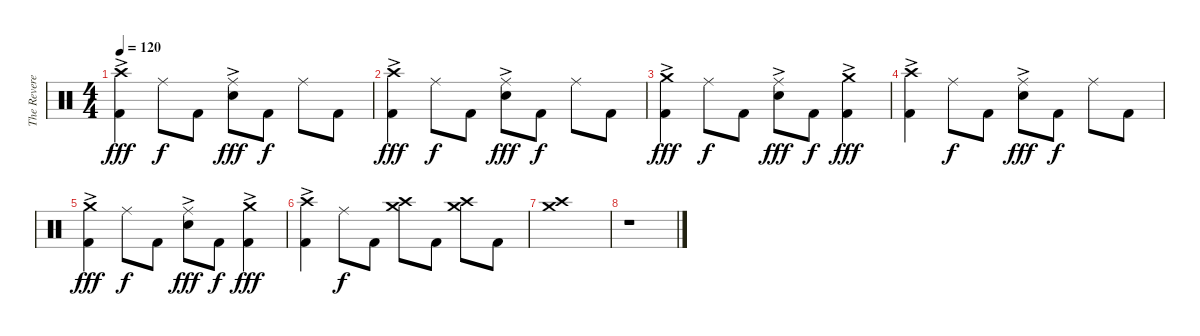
\track ("The Reverend" "The Revere") {instrument percussion}
\staff {score}
\articulation defaults
\ts (4 4)
\tempo 120
\clef neutral
\ks c
("Crash high (hit)"{ac} "Kick (hit) 2").4{dy fff} "Ride (middle)".8{dy f} "Kick (hit) 2".8 ("Ride (middle)" "Electric Snare (hit)"{ac}).8{dy fff} "Kick (hit) 2".8{dy f} "Ride (middle)".8 "Kick (hit) 2".8 |
("Crash high (hit)"{ac} "Kick (hit) 2").4{dy fff} "Ride (middle)".8{dy f} "Kick (hit) 2".8 ("Ride (middle)" "Electric Snare (hit)"{ac}).8{dy fff} "Kick (hit) 2".8{dy f} "Ride (middle)".8 "Kick (hit) 2".8 |
("Crash medium (hit)"{ac} "Kick (hit) 2").4{dy fff} "Ride (middle)".8{dy f} "Kick (hit) 2".8 ("Ride (middle)" "Electric Snare (hit)"{ac}).8{dy fff} "Kick (hit) 2".8{dy f} ("Crash medium (hit)"{ac} "Kick (hit) 2").4{dy fff} |
("Crash high (hit)"{ac} "Kick (hit) 2").4 "Ride (middle)".8{dy f} "Kick (hit) 2".8 ("Ride (middle)" "Electric Snare (hit)"{ac}).8{dy fff} "Kick (hit) 2".8{dy f} "Ride (middle)".8 "Kick (hit) 2".8 |
("Crash medium (hit)"{ac} "Kick (hit) 2").4{dy fff} "Ride (middle)".8{dy f} "Kick (hit) 2".8 ("Ride (middle)" "Electric Snare (hit)"{ac}).8{dy fff} "Kick (hit) 2".8{dy f} ("Crash medium (hit)"{ac} "Kick (hit) 2").4{dy fff} |
("Crash high (hit)"{ac} "Kick (hit) 2").4 "Ride (middle)".8{dy f} "Kick (hit) 2".8 ("Crash medium (hit)" "Crash high (hit)").8 "Kick (hit) 2".8 ("Crash medium (hit)" "Crash high (hit)").8 "Kick (hit) 2".8 |
("Crash medium (hit)" "Crash high (hit)").1 |
r.1
